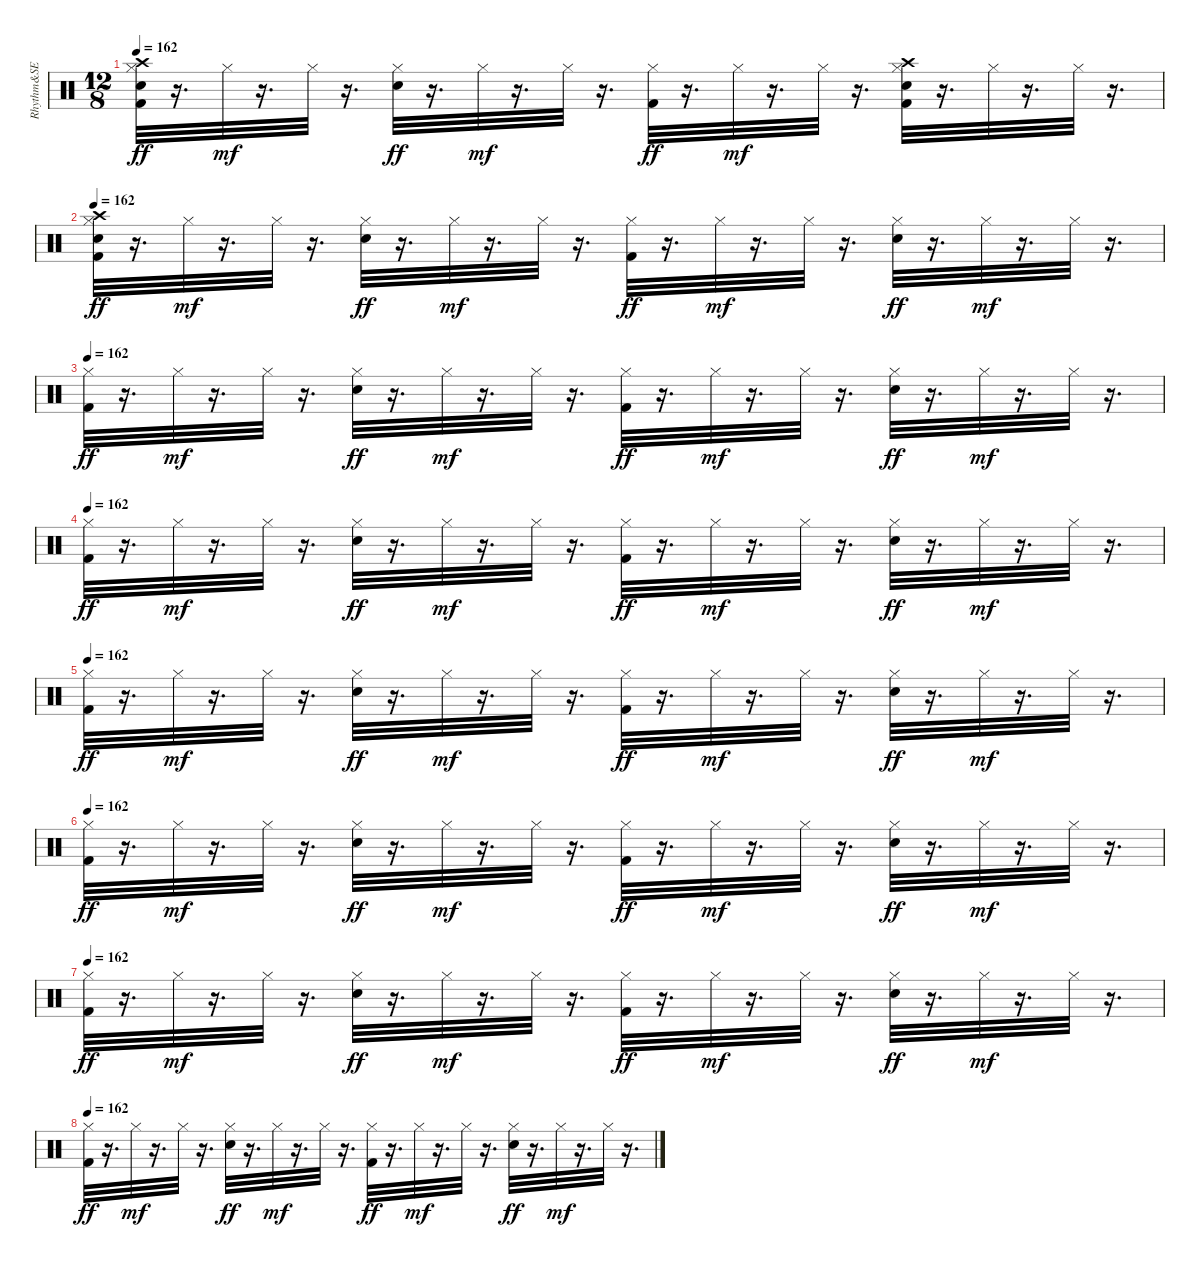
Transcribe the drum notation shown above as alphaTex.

\track ("Rhythm&SE" "Rhythm&SE") {instrument percussion}
\staff {score}
\articulation defaults
\ts (12 8)
\tempo 162
\clef neutral
\ks c
("Kick (hit) 2" "Hi-Hat (closed)" "Snare (hit) 2" "Crash high (hit)").32{dy ff volume 14 balance 8} r.16{d} "Hi-Hat (closed)".32{dy mf} r.16{d} "Hi-Hat (closed)".32{volume 14} r.16{d} ("Snare (hit) 2" "Hi-Hat (closed)").32{dy ff} r.16{d} "Hi-Hat (closed)".32{dy mf} r.16{d} "Hi-Hat (closed)".32 r.16{d} ("Kick (hit) 2" "Hi-Hat (closed)").32{dy ff} r.16{d} "Hi-Hat (closed)".32{dy mf} r.16{d} "Hi-Hat (closed)".32 r.16{d} ("Snare (hit) 2" "Hi-Hat (closed)" "Kick (hit) 2" "Crash high (hit)").32 r.16{d} "Hi-Hat (closed)".32 r.16{d} "Hi-Hat (closed)".32 r.16{d} |
\tempo 162
("Kick (hit) 2" "Hi-Hat (closed)" "Snare (hit) 2" "Crash high (hit)").32{dy ff volume 14 balance 8} r.16{d} "Hi-Hat (closed)".32{dy mf} r.16{d} "Hi-Hat (closed)".32{volume 14} r.16{d} ("Snare (hit) 2" "Hi-Hat (closed)").32{dy ff} r.16{d} "Hi-Hat (closed)".32{dy mf} r.16{d} "Hi-Hat (closed)".32 r.16{d} ("Kick (hit) 2" "Hi-Hat (closed)").32{dy ff} r.16{d} "Hi-Hat (closed)".32{dy mf} r.16{d} "Hi-Hat (closed)".32 r.16{d} ("Snare (hit) 2" "Hi-Hat (closed)").32{dy ff} r.16{d} "Hi-Hat (closed)".32{dy mf} r.16{d} "Hi-Hat (closed)".32 r.16{d} |
\tempo 162
("Kick (hit) 2" "Hi-Hat (closed)").32{dy ff volume 14 balance 8} r.16{d} "Hi-Hat (closed)".32{dy mf} r.16{d} "Hi-Hat (closed)".32{volume 14} r.16{d} ("Snare (hit) 2" "Hi-Hat (closed)").32{dy ff} r.16{d} "Hi-Hat (closed)".32{dy mf} r.16{d} "Hi-Hat (closed)".32 r.16{d} ("Kick (hit) 2" "Hi-Hat (closed)").32{dy ff} r.16{d} "Hi-Hat (closed)".32{dy mf} r.16{d} "Hi-Hat (closed)".32 r.16{d} ("Snare (hit) 2" "Hi-Hat (closed)").32{dy ff} r.16{d} "Hi-Hat (closed)".32{dy mf} r.16{d} "Hi-Hat (closed)".32 r.16{d} |
\tempo 162
("Kick (hit) 2" "Hi-Hat (closed)").32{dy ff volume 14 balance 8} r.16{d} "Hi-Hat (closed)".32{dy mf} r.16{d} "Hi-Hat (closed)".32{volume 14} r.16{d} ("Snare (hit) 2" "Hi-Hat (closed)").32{dy ff} r.16{d} "Hi-Hat (closed)".32{dy mf} r.16{d} "Hi-Hat (closed)".32 r.16{d} ("Kick (hit) 2" "Hi-Hat (closed)").32{dy ff} r.16{d} "Hi-Hat (closed)".32{dy mf} r.16{d} "Hi-Hat (closed)".32 r.16{d} ("Snare (hit) 2" "Hi-Hat (closed)").32{dy ff} r.16{d} "Hi-Hat (closed)".32{dy mf} r.16{d} "Hi-Hat (closed)".32 r.16{d} |
\tempo 162
("Kick (hit) 2" "Hi-Hat (closed)").32{dy ff volume 14 balance 8} r.16{d} "Hi-Hat (closed)".32{dy mf} r.16{d} "Hi-Hat (closed)".32{volume 14} r.16{d} ("Snare (hit) 2" "Hi-Hat (closed)").32{dy ff} r.16{d} "Hi-Hat (closed)".32{dy mf} r.16{d} "Hi-Hat (closed)".32 r.16{d} ("Kick (hit) 2" "Hi-Hat (closed)").32{dy ff} r.16{d} "Hi-Hat (closed)".32{dy mf} r.16{d} "Hi-Hat (closed)".32 r.16{d} ("Snare (hit) 2" "Hi-Hat (closed)").32{dy ff} r.16{d} "Hi-Hat (closed)".32{dy mf} r.16{d} "Hi-Hat (closed)".32 r.16{d} |
\tempo 162
("Kick (hit) 2" "Hi-Hat (closed)").32{dy ff volume 14 balance 8} r.16{d} "Hi-Hat (closed)".32{dy mf} r.16{d} "Hi-Hat (closed)".32{volume 14} r.16{d} ("Snare (hit) 2" "Hi-Hat (closed)").32{dy ff} r.16{d} "Hi-Hat (closed)".32{dy mf} r.16{d} "Hi-Hat (closed)".32 r.16{d} ("Kick (hit) 2" "Hi-Hat (closed)").32{dy ff} r.16{d} "Hi-Hat (closed)".32{dy mf} r.16{d} "Hi-Hat (closed)".32 r.16{d} ("Snare (hit) 2" "Hi-Hat (closed)").32{dy ff} r.16{d} "Hi-Hat (closed)".32{dy mf} r.16{d} "Hi-Hat (closed)".32 r.16{d} |
\tempo 162
("Kick (hit) 2" "Hi-Hat (closed)").32{dy ff volume 14 balance 8} r.16{d} "Hi-Hat (closed)".32{dy mf} r.16{d} "Hi-Hat (closed)".32{volume 14} r.16{d} ("Snare (hit) 2" "Hi-Hat (closed)").32{dy ff} r.16{d} "Hi-Hat (closed)".32{dy mf} r.16{d} "Hi-Hat (closed)".32 r.16{d} ("Kick (hit) 2" "Hi-Hat (closed)").32{dy ff} r.16{d} "Hi-Hat (closed)".32{dy mf} r.16{d} "Hi-Hat (closed)".32 r.16{d} ("Snare (hit) 2" "Hi-Hat (closed)").32{dy ff} r.16{d} "Hi-Hat (closed)".32{dy mf} r.16{d} "Hi-Hat (closed)".32 r.16{d} |
\tempo 162
("Kick (hit) 2" "Hi-Hat (closed)").32{dy ff volume 14 balance 8} r.16{d} "Hi-Hat (closed)".32{dy mf} r.16{d} "Hi-Hat (closed)".32{volume 14} r.16{d} ("Snare (hit) 2" "Hi-Hat (closed)").32{dy ff} r.16{d} "Hi-Hat (closed)".32{dy mf} r.16{d} "Hi-Hat (closed)".32 r.16{d} ("Kick (hit) 2" "Hi-Hat (closed)").32{dy ff} r.16{d} "Hi-Hat (closed)".32{dy mf} r.16{d} "Hi-Hat (closed)".32 r.16{d} ("Snare (hit) 2" "Hi-Hat (closed)").32{dy ff} r.16{d} "Hi-Hat (closed)".32{dy mf} r.16{d} "Hi-Hat (closed)".32 r.16{d}
